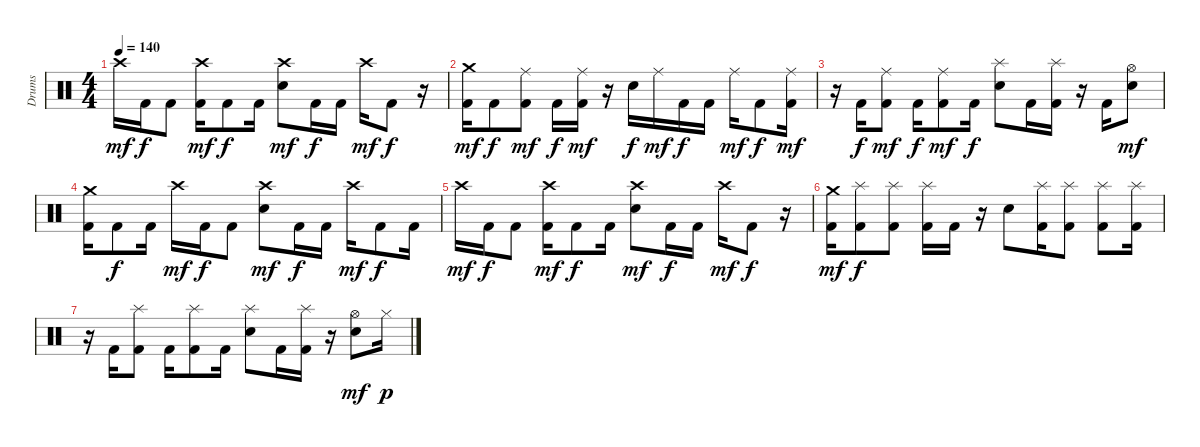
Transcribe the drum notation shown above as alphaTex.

\track ("Drums" "Drums") {instrument percussion}
\staff {score}
\articulation defaults
\ts (4 4)
\tempo 140
\clef neutral
\ks c "Crash high (hit)".16{dy mf} "Kick (hit) 2".16{dy f} "Kick (hit) 2".8
("Crash high (hit)" "Kick (hit) 2").16{dy mf} "Kick (hit) 2".8{dy f} "Kick (hit) 2".16 ("Crash high (hit)" "Electric Snare (hit)").8{dy mf} "Kick (hit) 2".16{dy f} "Kick (hit) 2".16 "Crash high (hit)".16{dy mf} "Kick (hit) 2".8{dy f} r.16 |
("Crash medium (hit)" "Kick (hit) 2").16{dy mf} "Kick (hit) 2".8{dy f} ("Ride (middle)" "Kick (hit) 2").8{dy mf} "Kick (hit) 2".16{dy f} ("Ride (middle)" "Kick (hit) 2").16{dy mf} r.16 "Electric Snare (hit)".16{dy f} "Ride (middle)".16{dy mf} "Kick (hit) 2".16{dy f} "Kick (hit) 2".16 "Ride (middle)".16{dy mf} "Kick (hit) 2".8{dy f} ("Ride (middle)" "Kick (hit) 2").16{dy mf} |
r.16 "Kick (hit) 2".16{dy f} ("Ride (middle)" "Kick (hit) 2").8{dy mf} "Kick (hit) 2".16{dy f} ("Ride (middle)" "Kick (hit) 2").8{dy mf} "Kick (hit) 2".16{dy f} ("Splash (hit)" "Electric Snare (hit)").8 "Kick (hit) 2".16 ("Splash (hit)" "Kick (hit) 2").16 r.16 "Kick (hit) 2".16 ("Hi-Hat (open)" "Electric Snare (hit)").8{dy mf} |
("Crash medium (hit)" "Kick (hit) 2").16 "Kick (hit) 2".8{dy f} "Kick (hit) 2".16 "Crash high (hit)".16{dy mf} "Kick (hit) 2".16{dy f} "Kick (hit) 2".8 ("Crash high (hit)" "Electric Snare (hit)").8{dy mf} "Kick (hit) 2".16{dy f} "Kick (hit) 2".16 "Crash high (hit)".16{dy mf} "Kick (hit) 2".8{dy f} "Kick (hit) 2".16 |
"Crash high (hit)".16{dy mf} "Kick (hit) 2".16{dy f} "Kick (hit) 2".8 ("Crash high (hit)" "Kick (hit) 2").16{dy mf} "Kick (hit) 2".8{dy f} "Kick (hit) 2".16 ("Crash high (hit)" "Electric Snare (hit)").8{dy mf} "Kick (hit) 2".16{dy f} "Kick (hit) 2".16 "Crash high (hit)".16{dy mf} "Kick (hit) 2".8{dy f} r.16 |
("Crash medium (hit)" "Kick (hit) 2").16{dy mf} ("Splash (hit)" "Kick (hit) 2").8{dy f} ("Splash (hit)" "Kick (hit) 2").8 ("Splash (hit)" "Kick (hit) 2").16 "Kick (hit) 2".16 r.16 "Electric Snare (hit)".8 ("Splash (hit)" "Kick (hit) 2").16 ("Splash (hit)" "Kick (hit) 2").8 ("Splash (hit)" "Kick (hit) 2").8 ("Splash (hit)" "Kick (hit) 2").16 |
r.16 "Kick (hit) 2".16 ("Splash (hit)" "Kick (hit) 2").8 "Kick (hit) 2".16 ("Splash (hit)" "Kick (hit) 2").8 "Kick (hit) 2".16 ("Splash (hit)" "Electric Snare (hit)").8 "Kick (hit) 2".16 ("Splash (hit)" "Kick (hit) 2").16 r.16 ("Hi-Hat (open)" "Electric Snare (hit)").8{dy mf} "Hi-Hat (closed)".16{dy p}
